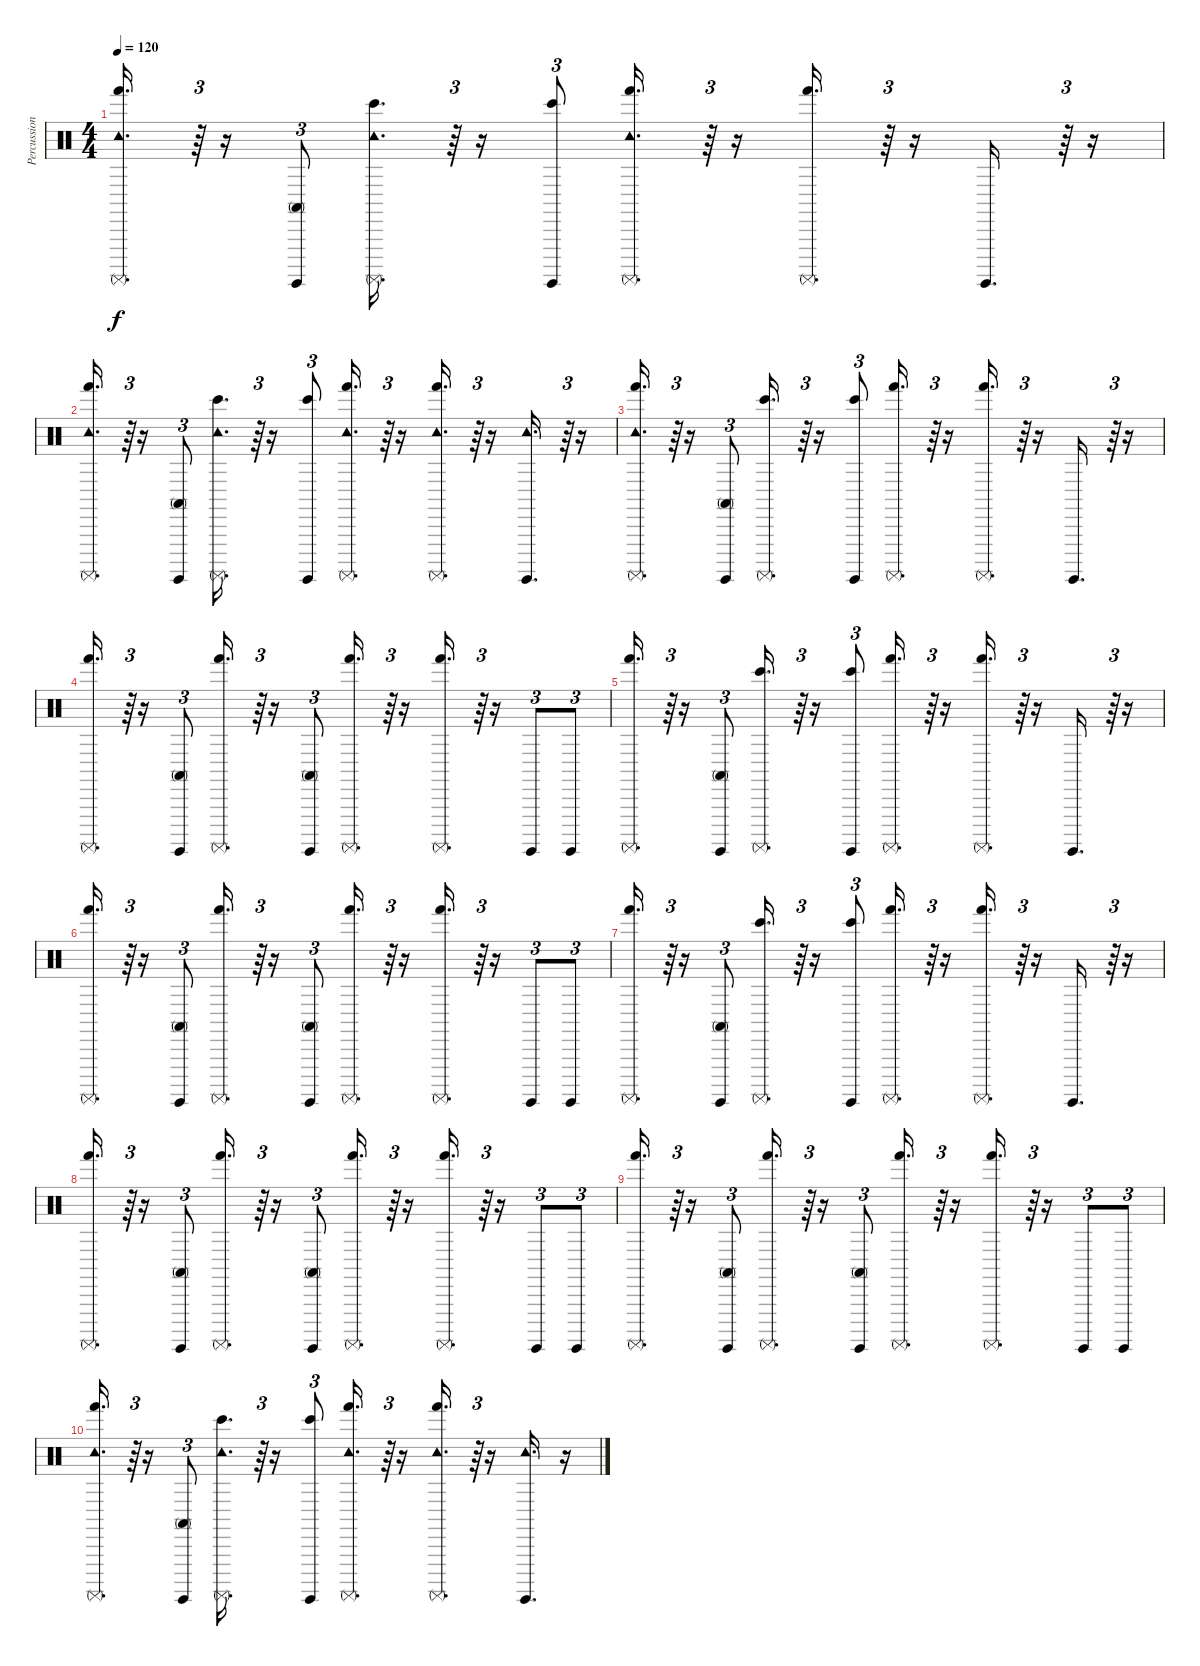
\track ("Percussion" "Percussion") {instrument percussion}
\staff {score}
\articulation defaults
\ts (4 4)
\tempo 120
\clef neutral
\ks c
("Tambourine (hit)" "Hand (hit)" "Surdo (mute)").16{d dy f} r.64{tu (3 2)} r.16 ("Conga high (mute)" "Surdo (hit)").8{tu (3 2)} ("Tambourine (hit)" "Bongo High (hit)" "Surdo (mute)").16{d} r.64{tu (3 2)} r.16 ("Bongo High (hit)" "Surdo (hit)").8{tu (3 2)} ("Tambourine (hit)" "Hand (hit)" "Surdo (mute)").16{d} r.64{tu (3 2)} r.16 ("Hand (hit)" "Surdo (mute)").16{d} r.64{tu (3 2)} r.16 "Surdo (hit)".16{d} r.64{tu (3 2)} r.16 |
("Tambourine (hit)" "Hand (hit)" "Surdo (mute)").16{d} r.64{tu (3 2)} r.16 ("Conga high (mute)" "Surdo (hit)").8{tu (3 2)} ("Tambourine (hit)" "Bongo High (hit)" "Surdo (mute)").16{d} r.64{tu (3 2)} r.16 ("Bongo High (hit)" "Surdo (hit)").8{tu (3 2)} ("Tambourine (hit)" "Hand (hit)" "Surdo (mute)").16{d} r.64{tu (3 2)} r.16 ("Tambourine (hit)" "Hand (hit)" "Surdo (mute)").16{d} r.64{tu (3 2)} r.16 ("Tambourine (hit)" "Surdo (hit)").16{d} r.64{tu (3 2)} r.16 |
("Tambourine (hit)" "Hand (hit)" "Surdo (mute)").16{d} r.64{tu (3 2)} r.16 ("Conga high (mute)" "Surdo (hit)").8{tu (3 2)} ("Bongo High (hit)" "Surdo (mute)").16{d} r.64{tu (3 2)} r.16 ("Bongo High (hit)" "Surdo (hit)").8{tu (3 2)} ("Hand (hit)" "Surdo (mute)").16{d} r.64{tu (3 2)} r.16 ("Hand (hit)" "Surdo (mute)").16{d} r.64{tu (3 2)} r.16 "Surdo (hit)".16{d} r.64{tu (3 2)} r.16 |
("Hand (hit)" "Surdo (mute)").16{d} r.64{tu (3 2)} r.16 ("Conga high (mute)" "Surdo (hit)").8{tu (3 2)} ("Hand (hit)" "Surdo (mute)").16{d} r.64{tu (3 2)} r.16 ("Conga high (mute)" "Surdo (hit)").8{tu (3 2)} ("Hand (hit)" "Surdo (mute)").16{d} r.64{tu (3 2)} r.16 ("Hand (hit)" "Surdo (mute)").16{d} r.64{tu (3 2)} r.16 "Surdo (hit)".8{tu (3 2)} "Surdo (hit)".8{tu (3 2)} |
("Hand (hit)" "Surdo (mute)").16{d} r.64{tu (3 2)} r.16 ("Conga high (mute)" "Surdo (hit)").8{tu (3 2)} ("Bongo High (hit)" "Surdo (mute)").16{d} r.64{tu (3 2)} r.16 ("Bongo High (hit)" "Surdo (hit)").8{tu (3 2)} ("Hand (hit)" "Surdo (mute)").16{d} r.64{tu (3 2)} r.16 ("Hand (hit)" "Surdo (mute)").16{d} r.64{tu (3 2)} r.16 "Surdo (hit)".16{d} r.64{tu (3 2)} r.16 |
("Hand (hit)" "Surdo (mute)").16{d} r.64{tu (3 2)} r.16 ("Conga high (mute)" "Surdo (hit)").8{tu (3 2)} ("Hand (hit)" "Surdo (mute)").16{d} r.64{tu (3 2)} r.16 ("Conga high (mute)" "Surdo (hit)").8{tu (3 2)} ("Hand (hit)" "Surdo (mute)").16{d} r.64{tu (3 2)} r.16 ("Hand (hit)" "Surdo (mute)").16{d} r.64{tu (3 2)} r.16 "Surdo (hit)".8{tu (3 2)} "Surdo (hit)".8{tu (3 2)} |
("Hand (hit)" "Surdo (mute)").16{d} r.64{tu (3 2)} r.16 ("Conga high (mute)" "Surdo (hit)").8{tu (3 2)} ("Bongo High (hit)" "Surdo (mute)").16{d} r.64{tu (3 2)} r.16 ("Bongo High (hit)" "Surdo (hit)").8{tu (3 2)} ("Hand (hit)" "Surdo (mute)").16{d} r.64{tu (3 2)} r.16 ("Hand (hit)" "Surdo (mute)").16{d} r.64{tu (3 2)} r.16 "Surdo (hit)".16{d} r.64{tu (3 2)} r.16 |
("Hand (hit)" "Surdo (mute)").16{d} r.64{tu (3 2)} r.16 ("Conga high (mute)" "Surdo (hit)").8{tu (3 2)} ("Hand (hit)" "Surdo (mute)").16{d} r.64{tu (3 2)} r.16 ("Conga high (mute)" "Surdo (hit)").8{tu (3 2)} ("Hand (hit)" "Surdo (mute)").16{d} r.64{tu (3 2)} r.16 ("Hand (hit)" "Surdo (mute)").16{d} r.64{tu (3 2)} r.16 "Surdo (hit)".8{tu (3 2)} "Surdo (hit)".8{tu (3 2)} |
("Hand (hit)" "Surdo (mute)").16{d} r.64{tu (3 2)} r.16 ("Conga high (mute)" "Surdo (hit)").8{tu (3 2)} ("Hand (hit)" "Surdo (mute)").16{d} r.64{tu (3 2)} r.16 ("Conga high (mute)" "Surdo (hit)").8{tu (3 2)} ("Hand (hit)" "Surdo (mute)").16{d} r.64{tu (3 2)} r.16 ("Hand (hit)" "Surdo (mute)").16{d} r.64{tu (3 2)} r.16 "Surdo (hit)".8{tu (3 2)} "Surdo (hit)".8{tu (3 2)} |
("Tambourine (hit)" "Hand (hit)" "Surdo (mute)").16{d} r.64{tu (3 2)} r.16 ("Conga high (mute)" "Surdo (hit)").8{tu (3 2)} ("Tambourine (hit)" "Bongo High (hit)" "Surdo (mute)").16{d} r.64{tu (3 2)} r.16 ("Bongo High (hit)" "Surdo (hit)").8{tu (3 2)} ("Tambourine (hit)" "Hand (hit)" "Surdo (mute)").16{d} r.64{tu (3 2)} r.16 ("Tambourine (hit)" "Hand (hit)" "Surdo (mute)").16{d} r.64{tu (3 2)} r.16 ("Tambourine (hit)" "Surdo (hit)").16{d} r.16
